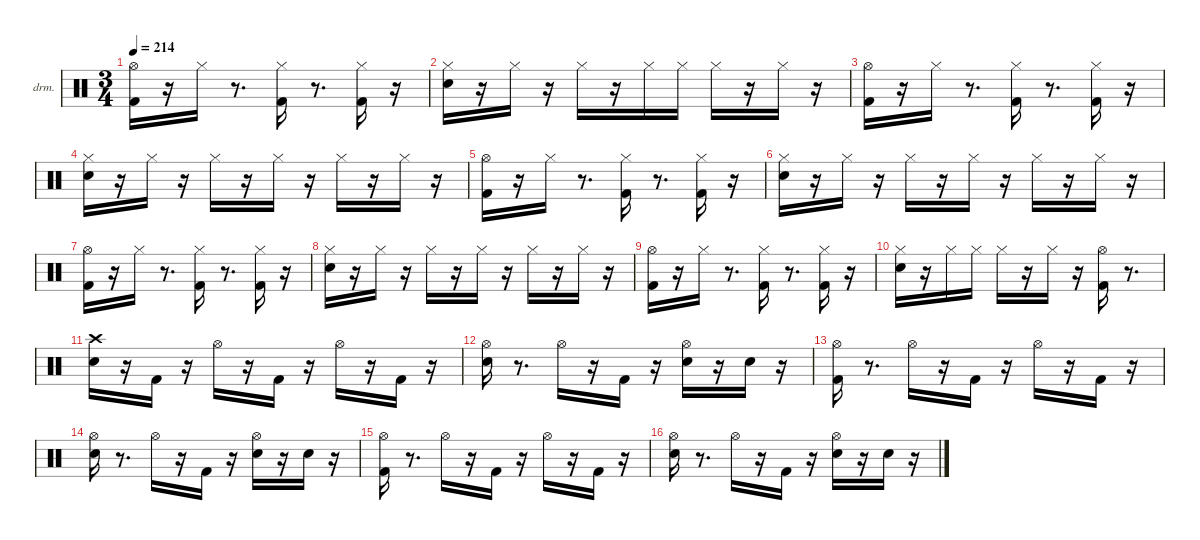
\hideDynamics
\bracketExtendMode nobrackets
\firstSystemTrackNameOrientation horizontal
\otherSystemsTrackNameOrientation horizontal
\track ("EZdrummer 3" "drm.") {instrument percussion}
\staff {score}
\articulation defaults
\ts (3 4)
\tempo 214
\clef neutral
\ks aminor
("Kick (hit) 2" "Hi-Hat (open)"{acc #}).16{dy ff} r.16 "Hi-Hat (closed)"{acc #}.16 r.8{d} ("Kick (hit) 2" "Hi-Hat (closed)"{acc #}).16{dy p} r.8{d} ("Kick (hit) 2" "Hi-Hat (closed)"{acc #}).16{dy mf} r.16 |
("Snare (hit) 2" "Hi-Hat (closed)"{acc #}).16{dy ff} r.16 "Hi-Hat (closed)"{acc #}.16{dy ppp} r.16 "Hi-Hat (closed)"{acc #}.16{dy ff} r.16 "Hi-Hat (closed)"{acc #}.16{dy mf} "Hi-Hat (closed)"{acc #}.16{dy mp} "Hi-Hat (closed)"{acc #}.16{dy ff} r.16 "Hi-Hat (closed)"{acc #}.16{dy ppp} r.16 |
("Kick (hit) 2" "Hi-Hat (open)"{acc #}).16{dy ff} r.16 "Hi-Hat (closed)"{acc #}.16 r.8{d} ("Kick (hit) 2" "Hi-Hat (closed)"{acc #}).16{dy mp} r.8{d} ("Kick (hit) 2" "Hi-Hat (closed)"{acc #}).16{dy mf} r.16 |
("Snare (hit) 2" "Hi-Hat (closed)"{acc #}).16{dy ff} r.16 "Hi-Hat (closed)"{acc #}.16{dy ppp} r.16 "Hi-Hat (closed)"{acc #}.16{dy mp} r.16 "Hi-Hat (closed)"{acc #}.16{dy ppp} r.16 "Hi-Hat (closed)"{acc #}.16{dy mp} r.16 "Hi-Hat (closed)"{acc #}.16{dy ppp} r.16 |
("Kick (hit) 2" "Hi-Hat (open)"{acc #}).16{dy ff} r.16 "Hi-Hat (closed)"{acc #}.16 r.8{d} ("Kick (hit) 2" "Hi-Hat (closed)"{acc #}).16{dy mp} r.8{d} ("Kick (hit) 2" "Hi-Hat (closed)"{acc #}).16{dy mf} r.16 |
("Snare (hit) 2" "Hi-Hat (closed)"{acc #}).16{dy ff} r.16 "Hi-Hat (closed)"{acc #}.16{dy ppp} r.16 "Hi-Hat (closed)"{acc #}.16{dy mp} r.16 "Hi-Hat (closed)"{acc #}.16{dy ppp} r.16 "Hi-Hat (closed)"{acc #}.16{dy mp} r.16 "Hi-Hat (closed)"{acc #}.16{dy ppp} r.16 |
("Kick (hit) 2" "Hi-Hat (open)"{acc #}).16{dy ff} r.16 "Hi-Hat (closed)"{acc #}.16 r.8{d} ("Kick (hit) 2" "Hi-Hat (closed)"{acc #}).16{dy mp} r.8{d} ("Kick (hit) 2" "Hi-Hat (closed)"{acc #}).16{dy mf} r.16 |
("Snare (hit) 2" "Hi-Hat (closed)"{acc #}).16{dy ff} r.16 "Hi-Hat (closed)"{acc #}.16{dy ppp} r.16 "Hi-Hat (closed)"{acc #}.16{dy mp} r.16 "Hi-Hat (closed)"{acc #}.16{dy ppp} r.16 "Hi-Hat (closed)"{acc #}.16{dy mp} r.16 "Hi-Hat (closed)"{acc #}.16{dy ppp} r.16 |
("Kick (hit) 2" "Hi-Hat (open)"{acc #}).16{dy ff} r.16 "Hi-Hat (closed)"{acc #}.16 r.8{d} ("Kick (hit) 2" "Hi-Hat (closed)"{acc #}).16{dy mp} r.8{d} ("Kick (hit) 2" "Hi-Hat (closed)"{acc #}).16{dy mf} r.16 |
("Snare (hit) 2" "Hi-Hat (closed)"{acc #}).16{dy ff} r.16 "Hi-Hat (closed)"{acc #}.16{dy f} "Hi-Hat (closed)"{acc #}.16{dy mp} "Hi-Hat (closed)"{acc #}.16{dy ff} r.16 "Hi-Hat (closed)"{acc #}.16{dy p} r.16 ("Kick (hit) 2" "Hi-Hat (open)"{acc #}).16{dy ff} r.8{d} |
("Snare (hit) 2" "Crash high (hit)"{acc #}).16{dy f} r.16 "Kick (hit) 2".16 r.16 "Hi-Hat (open)"{acc #}.16{dy mf} r.16 "Kick (hit) 2".16{dy p} r.16 "Hi-Hat (open)"{acc #}.16{dy mp} r.16 "Kick (hit) 2".16{dy mf} r.16 |
("Snare (hit) 2" "Hi-Hat (open)"{acc #}).16 r.8{d} "Hi-Hat (open)"{acc #}.16 r.16 "Kick (hit) 2".16{dy f} r.16 ("Snare (hit) 2" "Hi-Hat (open)"{acc #}).16{dy mp} r.16 "Snare (hit) 2".16{dy pp} r.16 |
("Kick (hit) 2" "Hi-Hat (open)"{acc #}).16{dy ff} r.8{d} "Hi-Hat (open)"{acc #}.16{dy mf} r.16 "Kick (hit) 2".16{dy p} r.16 "Hi-Hat (open)"{acc #}.16{dy mp} r.16 "Kick (hit) 2".16{dy mf} r.16 |
("Snare (hit) 2" "Hi-Hat (open)"{acc #}).16 r.8{d} "Hi-Hat (open)"{acc #}.16{dy mp} r.16 "Kick (hit) 2".16{dy f} r.16 ("Snare (hit) 2" "Hi-Hat (open)"{acc #}).16{dy mp} r.16 "Snare (hit) 2".16{dy pp} r.16 |
("Kick (hit) 2" "Hi-Hat (open)"{acc #}).16{dy fff} r.8{d} "Hi-Hat (open)"{acc #}.16{dy mf} r.16 "Kick (hit) 2".16{dy p} r.16 "Hi-Hat (open)"{acc #}.16{dy mp} r.16 "Kick (hit) 2".16{dy mf} r.16 |
("Snare (hit) 2" "Hi-Hat (open)"{acc #}).16 r.8{d} "Hi-Hat (open)"{acc #}.16 r.16 "Kick (hit) 2".16{dy f} r.16 ("Snare (hit) 2" "Hi-Hat (open)"{acc #}).16{dy mp} r.16 "Snare (hit) 2".16{dy pp} r.16
